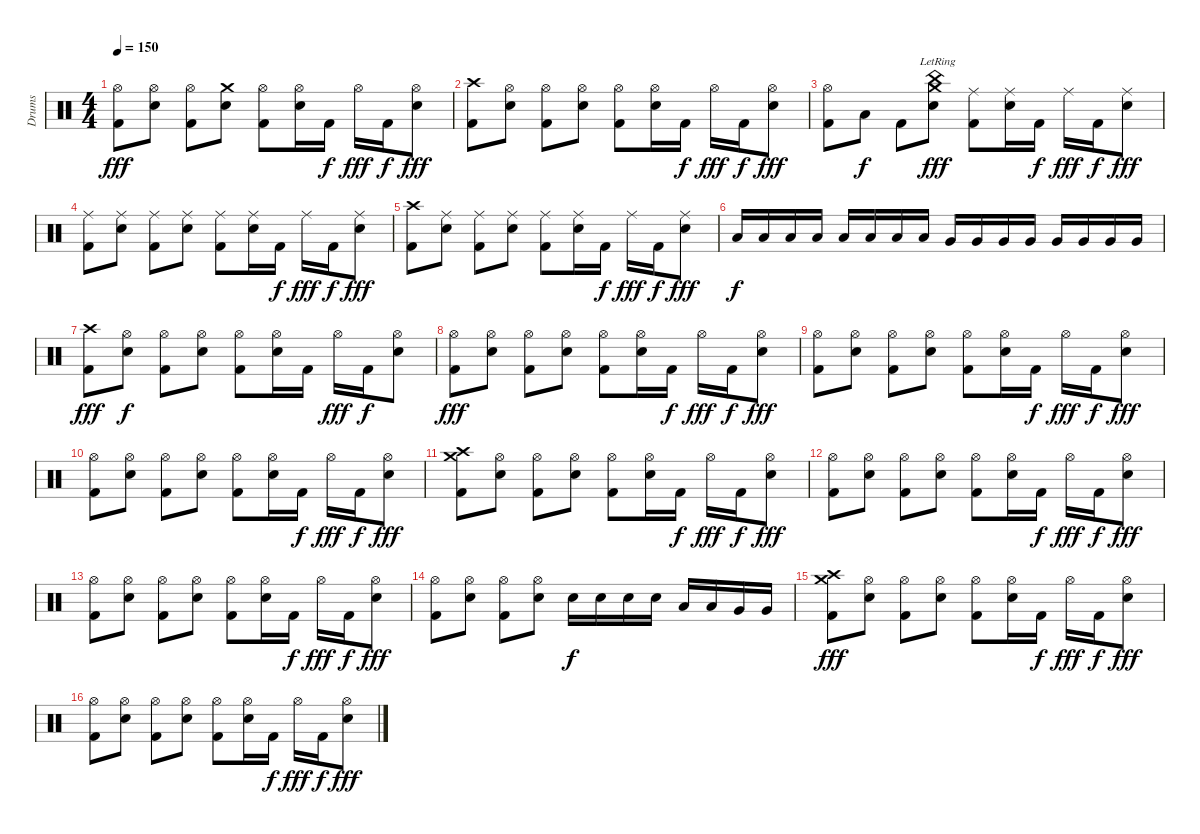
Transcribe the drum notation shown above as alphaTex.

\track ("Drums" "Drums") {instrument percussion}
\staff {score}
\articulation defaults
\ts (4 4)
\tempo 150
\clef neutral
\ks c
("Hi-Hat (open)" "Kick (hit) 2").8{dy fff} ("Hi-Hat (open)" "Electric Snare (hit)").8 ("Hi-Hat (open)" "Kick (hit) 2").8 ("Crash medium (hit)" "Electric Snare (hit)").8 ("Hi-Hat (open)" "Kick (hit) 2").8 ("Hi-Hat (open)" "Electric Snare (hit)").16 "Kick (hit) 2".16{dy f} "Hi-Hat (open)".16{dy fff} "Kick (hit) 2".16{dy f} ("Hi-Hat (open)" "Electric Snare (hit)").8{dy fff} |
("Crash high (hit)" "Kick (hit) 2").8 ("Hi-Hat (open)" "Electric Snare (hit)").8 ("Hi-Hat (open)" "Kick (hit) 2").8 ("Hi-Hat (open)" "Electric Snare (hit)").8 ("Hi-Hat (open)" "Kick (hit) 2").8 ("Hi-Hat (open)" "Electric Snare (hit)").16 "Kick (hit) 2".16{dy f} "Hi-Hat (open)".16{dy fff} "Kick (hit) 2".16{dy f} ("Hi-Hat (open)" "Electric Snare (hit)").8{dy fff} |
("Hi-Hat (open)" "Kick (hit) 2").8 "Low Tom (hit)".8{dy f} "Kick (hit) 2".8 ("China (hit)" "Crash medium (hit)"{lr} "Electric Snare (hit)").8{dy fff} ("Ride (middle)" "Kick (hit) 2").8 ("Ride (middle)" "Electric Snare (hit)").16 "Kick (hit) 2".16{dy f} "Ride (middle)".16{dy fff} "Kick (hit) 2".16{dy f} ("Ride (middle)" "Electric Snare (hit)").8{dy fff} |
("Ride (middle)" "Kick (hit) 2").8 ("Ride (middle)" "Electric Snare (hit)").8 ("Ride (middle)" "Kick (hit) 2").8 ("Ride (middle)" "Electric Snare (hit)").8 ("Ride (middle)" "Kick (hit) 2").8 ("Ride (middle)" "Electric Snare (hit)").16 "Kick (hit) 2".16{dy f} "Ride (middle)".16{dy fff} "Kick (hit) 2".16{dy f} ("Ride (middle)" "Electric Snare (hit)").8{dy fff} |
("Crash high (hit)" "Kick (hit) 2").8 ("Ride (middle)" "Electric Snare (hit)").8 ("Ride (middle)" "Kick (hit) 2").8 ("Ride (middle)" "Electric Snare (hit)").8 ("Ride (middle)" "Kick (hit) 2").8 ("Ride (middle)" "Electric Snare (hit)").16 "Kick (hit) 2".16{dy f} "Ride (middle)".16{dy fff} "Kick (hit) 2".16{dy f} ("Ride (middle)" "Electric Snare (hit)").8{dy fff} |
"Low Tom (hit)".16{dy f} "Low Tom (hit)".16 "Low Tom (hit)".16 "Low Tom (hit)".16 "Low Tom (hit)".16 "Low Tom (hit)".16 "Low Tom (hit)".16 "Low Tom (hit)".16 "Very Low Tom (hit)".16 "Very Low Tom (hit)".16 "Very Low Tom (hit)".16 "Very Low Tom (hit)".16 "Very Low Tom (hit)".16 "Very Low Tom (hit)".16 "Very Low Tom (hit)".16 "Very Low Tom (hit)".16 |
("Crash high (hit)" "Kick (hit) 2").8{dy fff} ("Hi-Hat (open)" "Electric Snare (hit)").8{dy f} ("Hi-Hat (open)" "Kick (hit) 2").8 ("Hi-Hat (open)" "Electric Snare (hit)").8 ("Hi-Hat (open)" "Kick (hit) 2").8 ("Hi-Hat (open)" "Electric Snare (hit)").16 "Kick (hit) 2".16 "Hi-Hat (open)".16{dy fff} "Kick (hit) 2".16{dy f} ("Hi-Hat (open)" "Electric Snare (hit)").8 |
("Hi-Hat (open)" "Kick (hit) 2").8{dy fff} ("Hi-Hat (open)" "Electric Snare (hit)").8 ("Hi-Hat (open)" "Kick (hit) 2").8 ("Hi-Hat (open)" "Electric Snare (hit)").8 ("Hi-Hat (open)" "Kick (hit) 2").8 ("Hi-Hat (open)" "Electric Snare (hit)").16 "Kick (hit) 2".16{dy f} "Hi-Hat (open)".16{dy fff} "Kick (hit) 2".16{dy f} ("Hi-Hat (open)" "Electric Snare (hit)").8{dy fff} |
("Hi-Hat (open)" "Kick (hit) 2").8 ("Hi-Hat (open)" "Electric Snare (hit)").8 ("Hi-Hat (open)" "Kick (hit) 2").8 ("Hi-Hat (open)" "Electric Snare (hit)").8 ("Hi-Hat (open)" "Kick (hit) 2").8 ("Hi-Hat (open)" "Electric Snare (hit)").16 "Kick (hit) 2".16{dy f} "Hi-Hat (open)".16{dy fff} "Kick (hit) 2".16{dy f} ("Hi-Hat (open)" "Electric Snare (hit)").8{dy fff} |
("Hi-Hat (open)" "Kick (hit) 2").8 ("Hi-Hat (open)" "Electric Snare (hit)").8 ("Hi-Hat (open)" "Kick (hit) 2").8 ("Hi-Hat (open)" "Electric Snare (hit)").8 ("Hi-Hat (open)" "Kick (hit) 2").8 ("Hi-Hat (open)" "Electric Snare (hit)").16 "Kick (hit) 2".16{dy f} "Hi-Hat (open)".16{dy fff} "Kick (hit) 2".16{dy f} ("Hi-Hat (open)" "Electric Snare (hit)").8{dy fff} |
("Crash medium (hit)" "Crash high (hit)" "Kick (hit) 2").8 ("Hi-Hat (open)" "Electric Snare (hit)").8 ("Hi-Hat (open)" "Kick (hit) 2").8 ("Hi-Hat (open)" "Electric Snare (hit)").8 ("Hi-Hat (open)" "Kick (hit) 2").8 ("Hi-Hat (open)" "Electric Snare (hit)").16 "Kick (hit) 2".16{dy f} "Hi-Hat (open)".16{dy fff} "Kick (hit) 2".16{dy f} ("Hi-Hat (open)" "Electric Snare (hit)").8{dy fff} |
("Hi-Hat (open)" "Kick (hit) 2").8 ("Hi-Hat (open)" "Electric Snare (hit)").8 ("Hi-Hat (open)" "Kick (hit) 2").8 ("Hi-Hat (open)" "Electric Snare (hit)").8 ("Hi-Hat (open)" "Kick (hit) 2").8 ("Hi-Hat (open)" "Electric Snare (hit)").16 "Kick (hit) 2".16{dy f} "Hi-Hat (open)".16{dy fff} "Kick (hit) 2".16{dy f} ("Hi-Hat (open)" "Electric Snare (hit)").8{dy fff} |
("Hi-Hat (open)" "Kick (hit) 2").8 ("Hi-Hat (open)" "Electric Snare (hit)").8 ("Hi-Hat (open)" "Kick (hit) 2").8 ("Hi-Hat (open)" "Electric Snare (hit)").8 ("Hi-Hat (open)" "Kick (hit) 2").8 ("Hi-Hat (open)" "Electric Snare (hit)").16 "Kick (hit) 2".16{dy f} "Hi-Hat (open)".16{dy fff} "Kick (hit) 2".16{dy f} ("Hi-Hat (open)" "Electric Snare (hit)").8{dy fff} |
("Hi-Hat (open)" "Kick (hit) 2").8 ("Hi-Hat (open)" "Electric Snare (hit)").8 ("Hi-Hat (open)" "Kick (hit) 2").8 ("Hi-Hat (open)" "Electric Snare (hit)").8 "Electric Snare (hit)".16{dy f} "Electric Snare (hit)".16 "Electric Snare (hit)".16 "Electric Snare (hit)".16 "Low Tom (hit)".16 "Low Tom (hit)".16 "Very Low Tom (hit)".16 "Very Low Tom (hit)".16 |
("Crash high (hit)" "Crash medium (hit)" "Kick (hit) 2").8{dy fff} ("Hi-Hat (open)" "Electric Snare (hit)").8 ("Hi-Hat (open)" "Kick (hit) 2").8 ("Hi-Hat (open)" "Electric Snare (hit)").8 ("Hi-Hat (open)" "Kick (hit) 2").8 ("Hi-Hat (open)" "Electric Snare (hit)").16 "Kick (hit) 2".16{dy f} "Hi-Hat (open)".16{dy fff} "Kick (hit) 2".16{dy f} ("Hi-Hat (open)" "Electric Snare (hit)").8{dy fff} |
("Hi-Hat (open)" "Kick (hit) 2").8 ("Hi-Hat (open)" "Electric Snare (hit)").8 ("Hi-Hat (open)" "Kick (hit) 2").8 ("Hi-Hat (open)" "Electric Snare (hit)").8 ("Hi-Hat (open)" "Kick (hit) 2").8 ("Hi-Hat (open)" "Electric Snare (hit)").16 "Kick (hit) 2".16{dy f} "Hi-Hat (open)".16{dy fff} "Kick (hit) 2".16{dy f} ("Hi-Hat (open)" "Electric Snare (hit)").8{dy fff}
